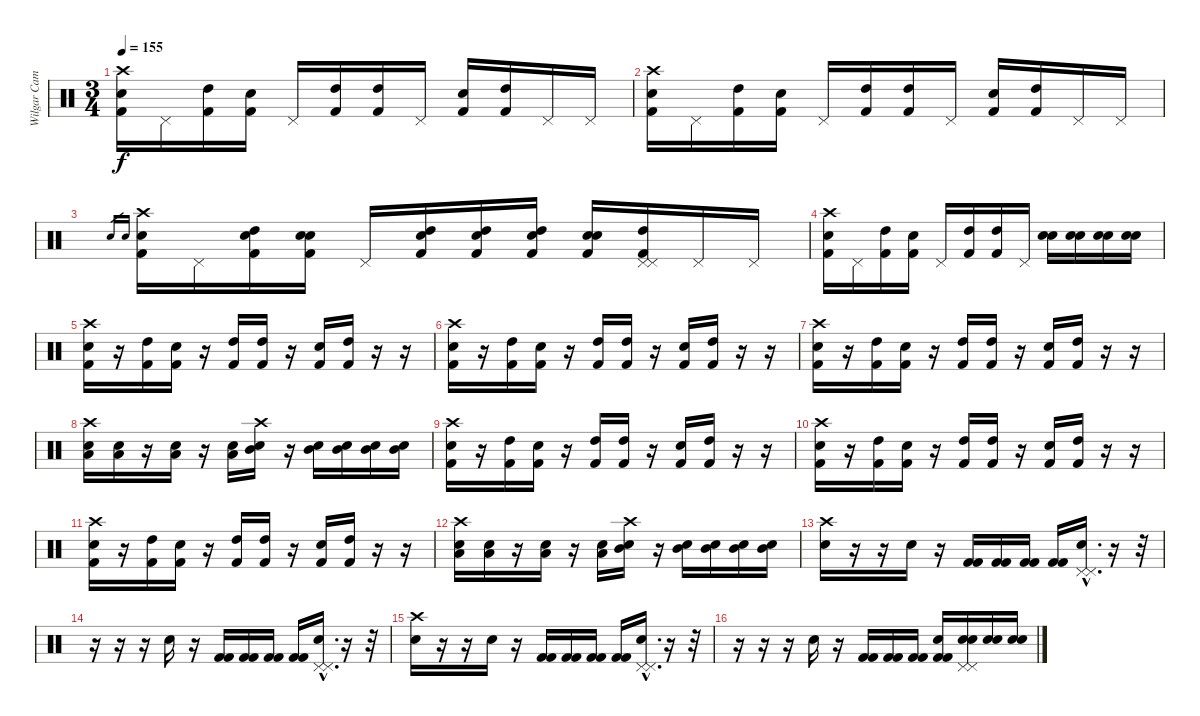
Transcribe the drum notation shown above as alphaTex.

\track ("Wilgar Campbell" "Wilgar Cam") {instrument percussion}
\staff {score}
\articulation defaults
\ts (3 4)
\tempo 155
\clef neutral
\ks c
("Kick (hit) 2" "Snare (hit) 2" "Crash high (hit)").16{dy f} "Pedal Hi-Hat (hit)".16 ("Kick (hit) 2" "High Tom (hit)").16 ("Kick (hit) 2" "Snare (hit) 2").16 "Pedal Hi-Hat (hit)".16 ("High Tom (hit)" "Kick (hit) 2").16 ("High Tom (hit)" "Kick (hit) 2").16 "Pedal Hi-Hat (hit)".16 ("Electric Snare (hit)" "Kick (hit) 2").16 ("High Tom (hit)" "Kick (hit) 2").16 "Pedal Hi-Hat (hit)".16 "Pedal Hi-Hat (hit)".16 |
("Kick (hit) 2" "Snare (hit) 2" "Crash high (hit)").16 "Pedal Hi-Hat (hit)".16 ("Kick (hit) 2" "High Tom (hit)").16 ("Kick (hit) 2" "Snare (hit) 2").16 "Pedal Hi-Hat (hit)".16 ("High Tom (hit)" "Kick (hit) 2").16 ("High Tom (hit)" "Kick (hit) 2").16 "Pedal Hi-Hat (hit)".16 ("Electric Snare (hit)" "Kick (hit) 2").16 ("High Tom (hit)" "Kick (hit) 2").16 "Pedal Hi-Hat (hit)".16 "Pedal Hi-Hat (hit)".16 |
"Electric Snare (hit)".16{gr} "Electric Snare (hit)".16{gr} ("Kick (hit) 2" "Snare (hit) 2" "Crash high (hit)").16 "Pedal Hi-Hat (hit)".16 ("Electric Snare (hit)" "Kick (hit) 2" "High Tom (hit)").16 ("Electric Snare (hit)" "Kick (hit) 2" "Snare (hit) 2").16 "Pedal Hi-Hat (hit)".16 ("Electric Snare (hit)" "High Tom (hit)" "Kick (hit) 2").16 ("Electric Snare (hit)" "High Tom (hit)" "Kick (hit) 2").16 ("Electric Snare (hit)" "High Tom (hit)" "Kick (hit) 2").16 ("Electric Snare (hit)" "Electric Snare (hit)" "Kick (hit) 2").16 ("Kick (hit) 2" "Pedal Hi-Hat (hit)" "High Tom (hit)" "Pedal Hi-Hat (hit)").16 "Pedal Hi-Hat (hit)".16 "Pedal Hi-Hat (hit)".16 |
("Kick (hit) 2" "Snare (hit) 2" "Crash high (hit)").16 "Pedal Hi-Hat (hit)".16 ("Kick (hit) 2" "High Tom (hit)").16 ("Kick (hit) 2" "Snare (hit) 2").16 "Pedal Hi-Hat (hit)".16 ("High Tom (hit)" "Kick (hit) 2").16 ("High Tom (hit)" "Kick (hit) 2").16 "Pedal Hi-Hat (hit)".16 ("Electric Snare (hit)" "Electric Snare (hit)").16 ("Electric Snare (hit)" "Electric Snare (hit)").16 ("Electric Snare (hit)" "Electric Snare (hit)").16 ("Electric Snare (hit)" "Electric Snare (hit)").16 |
("Kick (hit) 2" "Snare (hit) 2" "Crash high (hit)").16 r.16 ("Kick (hit) 2" "High Tom (hit)").16 ("Kick (hit) 2" "Snare (hit) 2").16 r.16 ("High Tom (hit)" "Kick (hit) 2").16 ("High Tom (hit)" "Kick (hit) 2").16 r.16 ("Electric Snare (hit)" "Kick (hit) 2").16 ("High Tom (hit)" "Kick (hit) 2").16 r.16 r.16 |
("Kick (hit) 2" "Snare (hit) 2" "Crash high (hit)").16 r.16 ("Kick (hit) 2" "High Tom (hit)").16 ("Kick (hit) 2" "Snare (hit) 2").16 r.16 ("High Tom (hit)" "Kick (hit) 2").16 ("High Tom (hit)" "Kick (hit) 2").16 r.16 ("Electric Snare (hit)" "Kick (hit) 2").16 ("High Tom (hit)" "Kick (hit) 2").16 r.16 r.16 |
("Kick (hit) 2" "Snare (hit) 2" "Crash high (hit)").16 r.16 ("Kick (hit) 2" "High Tom (hit)").16 ("Kick (hit) 2" "Snare (hit) 2").16 r.16 ("High Tom (hit)" "Kick (hit) 2").16 ("High Tom (hit)" "Kick (hit) 2").16 r.16 ("Electric Snare (hit)" "Kick (hit) 2").16 ("High Tom (hit)" "Kick (hit) 2").16 r.16 r.16 |
("Crash high (hit)" "Low Tom (hit)" "Snare (hit) 2").16 ("Low Tom (hit)" "Snare (hit) 2").16 r.16 ("Low Tom (hit)" "Snare (hit) 2").16 r.16 ("Low Tom (hit)" "Snare (hit) 2").16 ("Crash high (hit)" "Mid Tom (hit)" "Snare (hit) 2").16 r.16 ("Mid Tom (hit)" "Snare (hit) 2").16 ("Mid Tom (hit)" "Snare (hit) 2").16 ("Mid Tom (hit)" "Snare (hit) 2").16 ("Mid Tom (hit)" "Snare (hit) 2").16 |
("Kick (hit) 2" "Snare (hit) 2" "Crash high (hit)").16 r.16 ("Kick (hit) 2" "High Tom (hit)").16 ("Kick (hit) 2" "Snare (hit) 2").16 r.16 ("High Tom (hit)" "Kick (hit) 2").16 ("High Tom (hit)" "Kick (hit) 2").16 r.16 ("Electric Snare (hit)" "Kick (hit) 2").16 ("High Tom (hit)" "Kick (hit) 2").16 r.16 r.16 |
("Kick (hit) 2" "Snare (hit) 2" "Crash high (hit)").16 r.16 ("Kick (hit) 2" "High Tom (hit)").16 ("Kick (hit) 2" "Snare (hit) 2").16 r.16 ("High Tom (hit)" "Kick (hit) 2").16 ("High Tom (hit)" "Kick (hit) 2").16 r.16 ("Electric Snare (hit)" "Kick (hit) 2").16 ("High Tom (hit)" "Kick (hit) 2").16 r.16 r.16 |
("Kick (hit) 2" "Snare (hit) 2" "Crash high (hit)").16 r.16 ("Kick (hit) 2" "High Tom (hit)").16 ("Kick (hit) 2" "Snare (hit) 2").16 r.16 ("High Tom (hit)" "Kick (hit) 2").16 ("High Tom (hit)" "Kick (hit) 2").16 r.16 ("Electric Snare (hit)" "Kick (hit) 2").16 ("High Tom (hit)" "Kick (hit) 2").16 r.16 r.16 |
("Crash high (hit)" "Low Tom (hit)" "Snare (hit) 2").16 ("Low Tom (hit)" "Snare (hit) 2").16 r.16 ("Low Tom (hit)" "Snare (hit) 2").16 r.16 ("Low Tom (hit)" "Snare (hit) 2").16 ("Crash high (hit)" "Mid Tom (hit)" "Snare (hit) 2").16 r.16 ("Mid Tom (hit)" "Snare (hit) 2").16 ("Mid Tom (hit)" "Snare (hit) 2").16 ("Mid Tom (hit)" "Snare (hit) 2").16 ("Mid Tom (hit)" "Snare (hit) 2").16 |
("Electric Snare (hit)" "Crash high (hit)").16 r.16 r.16 "Electric Snare (hit)".16 r.16 ("Kick (hit) 2" "Kick (hit) 2").16 ("Kick (hit) 2" "Kick (hit) 2").16 ("Kick (hit) 2" "Kick (hit) 2").16 ("Kick (hit) 2" "Kick (hit) 2").16 ("Pedal Hi-Hat (hit)"{hac} "Electric Snare (hit)"{hac} "Pedal Hi-Hat (hit)"{hac}).16{d} r.16 r.32 |
r.16 r.16 r.16 "Electric Snare (hit)".16 r.16 ("Kick (hit) 2" "Kick (hit) 2").16 ("Kick (hit) 2" "Kick (hit) 2").16 ("Kick (hit) 2" "Kick (hit) 2").16 ("Kick (hit) 2" "Kick (hit) 2").16 ("Pedal Hi-Hat (hit)"{hac} "Electric Snare (hit)"{hac} "Pedal Hi-Hat (hit)"{hac}).16{d} r.16 r.32 |
("Electric Snare (hit)" "Crash high (hit)").16 r.16 r.16 "Electric Snare (hit)".16 r.16 ("Kick (hit) 2" "Kick (hit) 2").16 ("Kick (hit) 2" "Kick (hit) 2").16 ("Kick (hit) 2" "Kick (hit) 2").16 ("Kick (hit) 2" "Kick (hit) 2").16 ("Pedal Hi-Hat (hit)"{hac} "Electric Snare (hit)"{hac} "Pedal Hi-Hat (hit)"{hac}).16{d} r.16 r.32 |
r.16 r.16 r.16 "Electric Snare (hit)".16 r.16 ("Kick (hit) 2" "Kick (hit) 2").16 ("Kick (hit) 2" "Kick (hit) 2").16 ("Kick (hit) 2" "Kick (hit) 2").16 ("Kick (hit) 2" "Kick (hit) 2" "Electric Snare (hit)").16 ("Pedal Hi-Hat (hit)" "Electric Snare (hit)" "Pedal Hi-Hat (hit)" "Electric Snare (hit)").16 ("Electric Snare (hit)" "Electric Snare (hit)").16 ("Electric Snare (hit)" "Electric Snare (hit)").16
